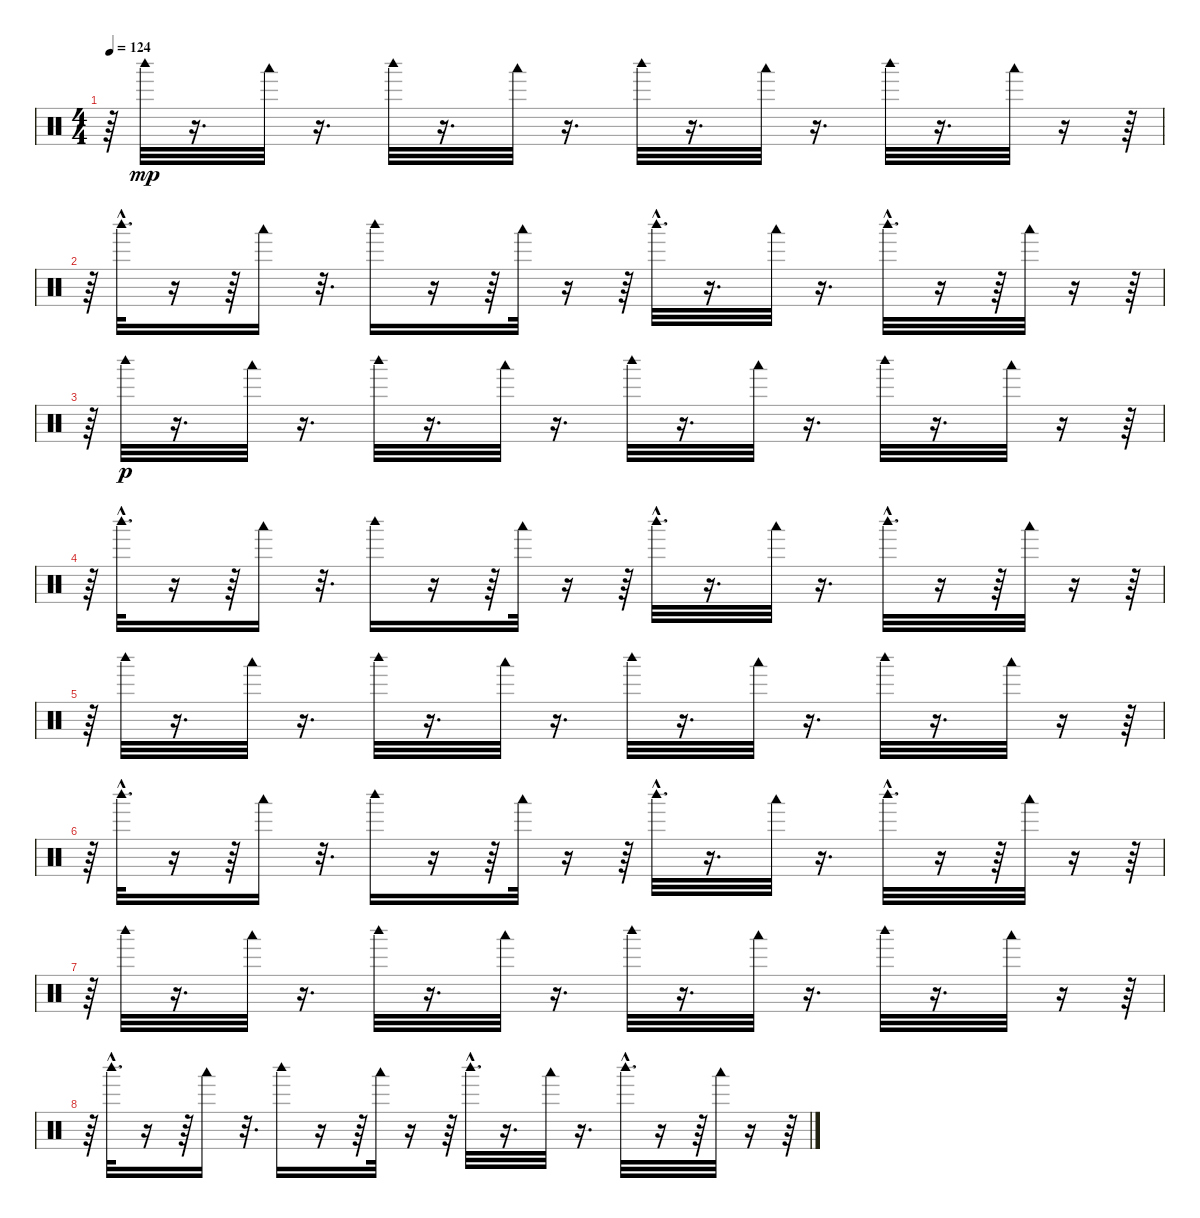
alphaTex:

\track "" {instrument percussion}
\staff {score}
\articulation defaults
\ts (4 4)
\tempo 124
\clef neutral
\ks c
r.64{dy mp} "Woodblock high (hit)".32 r.16{d} "Woodblock low (hit)".32 r.16{d} "Woodblock high (hit)".32 r.16{d} "Woodblock low (hit)".32 r.16{d} "Woodblock high (hit)".32 r.16{d} "Woodblock low (hit)".32 r.16{d} "Woodblock high (hit)".32 r.16{d} "Woodblock low (hit)".32 r.16 r.64 |
r.64 "Woodblock high (hit)"{hac}.32{d} r.16 r.64 "Woodblock low (hit)".16 r.32{d} "Woodblock high (hit)".16 r.16 r.64 "Woodblock low (hit)".32 r.16 r.64 "Woodblock high (hit)"{hac}.32{d} r.16{d} "Woodblock low (hit)".32 r.16{d} "Woodblock high (hit)"{hac}.32{d} r.16 r.64 "Woodblock low (hit)".32 r.16 r.64 |
r.64 "Woodblock high (hit)".32{dy p} r.16{d} "Woodblock low (hit)".32 r.16{d} "Woodblock high (hit)".32 r.16{d} "Woodblock low (hit)".32 r.16{d} "Woodblock high (hit)".32 r.16{d} "Woodblock low (hit)".32 r.16{d} "Woodblock high (hit)".32 r.16{d} "Woodblock low (hit)".32 r.16 r.64 |
r.64 "Woodblock high (hit)"{hac}.32{d} r.16 r.64 "Woodblock low (hit)".16 r.32{d} "Woodblock high (hit)".16 r.16 r.64 "Woodblock low (hit)".32 r.16 r.64 "Woodblock high (hit)"{hac}.32{d} r.16{d} "Woodblock low (hit)".32 r.16{d} "Woodblock high (hit)"{hac}.32{d} r.16 r.64 "Woodblock low (hit)".32 r.16 r.64 |
r.64 "Woodblock high (hit)".32 r.16{d} "Woodblock low (hit)".32 r.16{d} "Woodblock high (hit)".32 r.16{d} "Woodblock low (hit)".32 r.16{d} "Woodblock high (hit)".32 r.16{d} "Woodblock low (hit)".32 r.16{d} "Woodblock high (hit)".32 r.16{d} "Woodblock low (hit)".32 r.16 r.64 |
r.64 "Woodblock high (hit)"{hac}.32{d} r.16 r.64 "Woodblock low (hit)".16 r.32{d} "Woodblock high (hit)".16 r.16 r.64 "Woodblock low (hit)".32 r.16 r.64 "Woodblock high (hit)"{hac}.32{d} r.16{d} "Woodblock low (hit)".32 r.16{d} "Woodblock high (hit)"{hac}.32{d} r.16 r.64 "Woodblock low (hit)".32 r.16 r.64 |
r.64 "Woodblock high (hit)".32 r.16{d} "Woodblock low (hit)".32 r.16{d} "Woodblock high (hit)".32 r.16{d} "Woodblock low (hit)".32 r.16{d} "Woodblock high (hit)".32 r.16{d} "Woodblock low (hit)".32 r.16{d} "Woodblock high (hit)".32 r.16{d} "Woodblock low (hit)".32 r.16 r.64 |
r.64 "Woodblock high (hit)"{hac}.32{d} r.16 r.64 "Woodblock low (hit)".16 r.32{d} "Woodblock high (hit)".16 r.16 r.64 "Woodblock low (hit)".32 r.16 r.64 "Woodblock high (hit)"{hac}.32{d} r.16{d} "Woodblock low (hit)".32 r.16{d} "Woodblock high (hit)"{hac}.32{d} r.16 r.64 "Woodblock low (hit)".32 r.16 r.64
